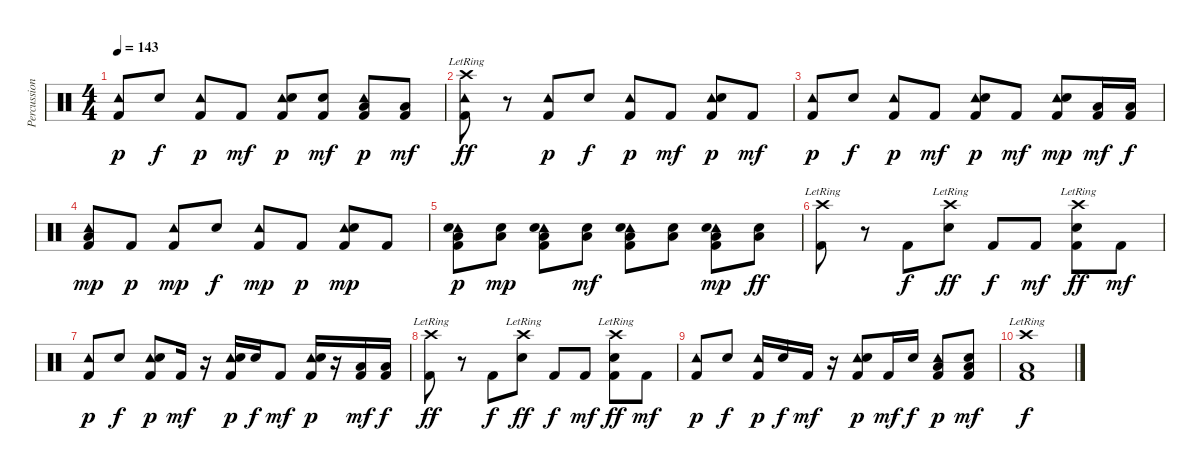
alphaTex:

\track ("Percussion" "Percussion") {instrument percussion}
\staff {score}
\articulation defaults
\ts (4 4)
\tempo 143
\clef neutral
\ks c
("Tambourine (hit)" "Kick (hit) 2").8{dy p} "Electric Snare (hit)".8{dy f} ("Tambourine (hit)" "Kick (hit) 2").8{dy p} "Kick (hit) 2".8{dy mf} ("Tambourine (hit)" "Electric Snare (hit)" "Kick (hit) 2").8{dy p} ("Electric Snare (hit)" "Kick (hit) 2").8{dy mf} ("Tambourine (hit)" "Low Floor Tom (hit)" "Kick (hit) 2").8{dy p} ("Low Floor Tom (hit)" "Kick (hit) 2").8{dy mf} |
("Tambourine (hit)" "Crash high (hit)"{lr} "Kick (hit) 2").8{dy ff} r.8 ("Tambourine (hit)" "Kick (hit) 2").8{dy p} "Electric Snare (hit)".8{dy f} ("Tambourine (hit)" "Kick (hit) 2").8{dy p} "Kick (hit) 2".8{dy mf} ("Tambourine (hit)" "Electric Snare (hit)" "Kick (hit) 2").8{dy p} "Kick (hit) 2".8{dy mf} |
("Tambourine (hit)" "Kick (hit) 2").8{dy p} "Electric Snare (hit)".8{dy f} ("Tambourine (hit)" "Kick (hit) 2").8{dy p} "Kick (hit) 2".8{dy mf} ("Tambourine (hit)" "Electric Snare (hit)" "Kick (hit) 2").8{dy p} "Kick (hit) 2".8{dy mf} ("Tambourine (hit)" "Electric Snare (hit)" "Kick (hit) 2").8{dy mp} ("Low Floor Tom (hit)" "Kick (hit) 2").16{dy mf} ("Low Floor Tom (hit)" "Kick (hit) 2").16{dy f} |
("Tambourine (hit)" "Low Floor Tom (hit)" "Kick (hit) 2").8{dy mp} "Kick (hit) 2".8{dy p} ("Tambourine (hit)" "Kick (hit) 2").8{dy mp} "Electric Snare (hit)".8{dy f} ("Tambourine (hit)" "Kick (hit) 2").8{dy mp} "Kick (hit) 2".8{dy p} ("Tambourine (hit)" "Electric Snare (hit)" "Kick (hit) 2").8{dy mp} "Kick (hit) 2".8 |
("Tambourine (hit)" "Electric Snare (hit)" "Low Floor Tom (hit)" "Kick (hit) 2").8{dy p} ("Electric Snare (hit)" "Low Floor Tom (hit)").8{dy mp} ("Tambourine (hit)" "Electric Snare (hit)" "Low Floor Tom (hit)" "Kick (hit) 2").8 ("Electric Snare (hit)" "Low Floor Tom (hit)").8{dy mf} ("Tambourine (hit)" "Electric Snare (hit)" "Low Floor Tom (hit)" "Kick (hit) 2").8 ("Electric Snare (hit)" "Low Floor Tom (hit)").8 ("Tambourine (hit)" "Electric Snare (hit)" "Low Floor Tom (hit)" "Kick (hit) 2").8{dy mp} ("Electric Snare (hit)" "Low Floor Tom (hit)").8{dy ff} |
("Crash high (hit)"{lr} "Kick (hit) 2").8 r.8 "Kick (hit) 2".8{dy f} ("Crash high (hit)"{lr} "Electric Snare (hit)").8{dy ff} "Kick (hit) 2".8{dy f} "Kick (hit) 2".8{dy mf} ("Crash high (hit)"{lr} "Electric Snare (hit)" "Kick (hit) 2").8{dy ff} "Kick (hit) 2".8{dy mf} |
("Tambourine (hit)" "Kick (hit) 2").8{dy p} "Electric Snare (hit)".8{dy f} ("Tambourine (hit)" "Electric Snare (hit)" "Kick (hit) 2").8{dy p} "Kick (hit) 2".16{dy mf} r.16 ("Tambourine (hit)" "Electric Snare (hit)" "Kick (hit) 2").16{dy p} "Electric Snare (hit)".16{dy f} "Kick (hit) 2".8{dy mf} ("Tambourine (hit)" "Electric Snare (hit)" "Kick (hit) 2").16{dy p} r.16 ("Low Floor Tom (hit)" "Kick (hit) 2").16{dy mf} ("Low Floor Tom (hit)" "Kick (hit) 2").16{dy f} |
("Crash high (hit)"{lr} "Kick (hit) 2").8{dy ff} r.8 "Kick (hit) 2".8{dy f} ("Crash high (hit)"{lr} "Electric Snare (hit)").8{dy ff} "Kick (hit) 2".8{dy f} "Kick (hit) 2".8{dy mf} ("Crash high (hit)"{lr} "Electric Snare (hit)" "Kick (hit) 2").8{dy ff} "Kick (hit) 2".8{dy mf} |
("Tambourine (hit)" "Kick (hit) 2").8{dy p} "Electric Snare (hit)".8{dy f} ("Tambourine (hit)" "Kick (hit) 2").16{dy p} "Electric Snare (hit)".16{dy f} "Kick (hit) 2".16{dy mf} r.16 ("Tambourine (hit)" "Electric Snare (hit)" "Kick (hit) 2").8{dy p} "Kick (hit) 2".16{dy mf} "Electric Snare (hit)".16{dy f} ("Tambourine (hit)" "Low Floor Tom (hit)" "Kick (hit) 2").8{dy p} ("Electric Snare (hit)" "Low Floor Tom (hit)" "Kick (hit) 2").8{dy mf} |
("Crash high (hit)"{lr} "Low Floor Tom (hit)" "Kick (hit) 2").1{dy f}
